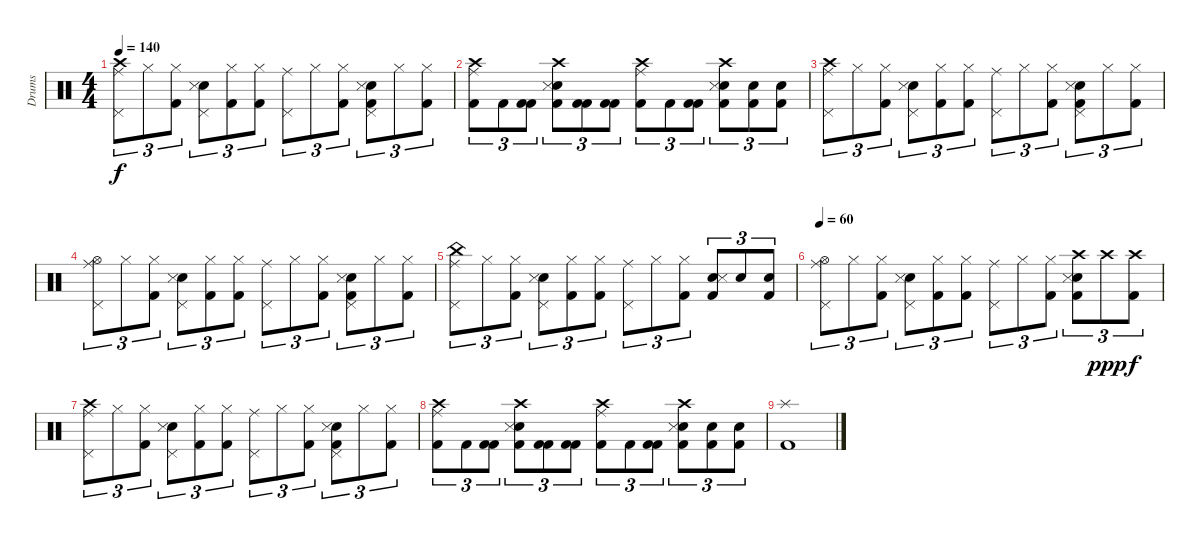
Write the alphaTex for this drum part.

\track ("Drums" "Drums") {instrument percussion}
\staff {score}
\articulation defaults
\ts (4 4)
\tempo 140
\clef neutral
\ks c
("Pedal Hi-Hat (hit)" "Ride (middle)" "Crash high (hit)").8{tu (3 2) dy f} "Hi-Hat (closed)".8{tu (3 2)} ("Hi-Hat (closed)" "Kick (hit) 2").8{tu (3 2)} ("Pedal Hi-Hat (hit)" "Electric Snare (hit)" "Snare (side stick) 3").8{tu (3 2)} ("Hi-Hat (closed)" "Kick (hit) 2").8{tu (3 2)} ("Hi-Hat (closed)" "Kick (hit) 2").8{tu (3 2)} ("Pedal Hi-Hat (hit)" "Ride (middle)").8{tu (3 2)} "Hi-Hat (closed)".8{tu (3 2)} ("Hi-Hat (closed)" "Kick (hit) 2").8{tu (3 2)} ("Pedal Hi-Hat (hit)" "Electric Snare (hit)" "Snare (side stick) 3" "Kick (hit) 2").8{tu (3 2)} "Hi-Hat (closed)".8{tu (3 2)} ("Hi-Hat (closed)" "Kick (hit) 2").8{tu (3 2)} |
("Kick (hit) 2" "Ride (middle)" "Crash high (hit)").8{tu (3 2)} "Kick (hit) 2".8{tu (3 2)} ("Kick (hit) 2" "Kick (hit) 2").8{tu (3 2)} ("Kick (hit) 2" "Electric Snare (hit)" "Snare (side stick) 3" "Crash high (hit)").8{tu (3 2)} ("Kick (hit) 2" "Kick (hit) 2").8{tu (3 2)} ("Kick (hit) 2" "Kick (hit) 2").8{tu (3 2)} ("Kick (hit) 2" "Ride (middle)" "Crash high (hit)").8{tu (3 2)} "Kick (hit) 2".8{tu (3 2)} ("Kick (hit) 2" "Kick (hit) 2").8{tu (3 2)} ("Kick (hit) 2" "Electric Snare (hit)" "Snare (side stick) 3" "Crash high (hit)").8{tu (3 2)} ("Kick (hit) 2" "Electric Snare (hit)").8{tu (3 2)} ("Kick (hit) 2" "Electric Snare (hit)").8{tu (3 2)} |
("Pedal Hi-Hat (hit)" "Ride (middle)" "Crash high (hit)").8{tu (3 2)} "Hi-Hat (closed)".8{tu (3 2)} ("Hi-Hat (closed)" "Kick (hit) 2").8{tu (3 2)} ("Pedal Hi-Hat (hit)" "Electric Snare (hit)" "Snare (side stick) 3").8{tu (3 2)} ("Hi-Hat (closed)" "Kick (hit) 2").8{tu (3 2)} ("Hi-Hat (closed)" "Kick (hit) 2").8{tu (3 2)} ("Pedal Hi-Hat (hit)" "Ride (middle)").8{tu (3 2)} "Hi-Hat (closed)".8{tu (3 2)} ("Hi-Hat (closed)" "Kick (hit) 2").8{tu (3 2)} ("Pedal Hi-Hat (hit)" "Electric Snare (hit)" "Snare (side stick) 3" "Kick (hit) 2").8{tu (3 2)} "Hi-Hat (closed)".8{tu (3 2)} ("Hi-Hat (closed)" "Kick (hit) 2").8{tu (3 2)} |
("Pedal Hi-Hat (hit)" "Ride (middle)" "Hi-Hat (open)").8{tu (3 2)} "Hi-Hat (closed)".8{tu (3 2)} ("Hi-Hat (closed)" "Kick (hit) 2").8{tu (3 2)} ("Pedal Hi-Hat (hit)" "Electric Snare (hit)" "Snare (side stick) 3").8{tu (3 2)} ("Hi-Hat (closed)" "Kick (hit) 2").8{tu (3 2)} ("Hi-Hat (closed)" "Kick (hit) 2").8{tu (3 2)} ("Pedal Hi-Hat (hit)" "Ride (middle)").8{tu (3 2)} "Hi-Hat (closed)".8{tu (3 2)} ("Hi-Hat (closed)" "Kick (hit) 2").8{tu (3 2)} ("Pedal Hi-Hat (hit)" "Electric Snare (hit)" "Snare (side stick) 3" "Kick (hit) 2").8{tu (3 2)} "Hi-Hat (closed)".8{tu (3 2)} ("Hi-Hat (closed)" "Kick (hit) 2").8{tu (3 2)} |
("Pedal Hi-Hat (hit)" "Ride (middle)" "China (hit)").8{tu (3 2)} "Hi-Hat (closed)".8{tu (3 2)} ("Hi-Hat (closed)" "Kick (hit) 2").8{tu (3 2)} ("Pedal Hi-Hat (hit)" "Electric Snare (hit)" "Snare (side stick) 3").8{tu (3 2)} ("Hi-Hat (closed)" "Kick (hit) 2").8{tu (3 2)} ("Hi-Hat (closed)" "Kick (hit) 2").8{tu (3 2)} ("Pedal Hi-Hat (hit)" "Ride (middle)").8{tu (3 2)} "Hi-Hat (closed)".8{tu (3 2)} ("Hi-Hat (closed)" "Kick (hit) 2").8{tu (3 2)} ("Electric Snare (hit)" "Snare (side stick) 3" "Kick (hit) 2").8{tu (3 2)} "Electric Snare (hit)".8{tu (3 2)} ("Electric Snare (hit)" "Kick (hit) 2").8{tu (3 2)} |
\tempo 60
("Pedal Hi-Hat (hit)" "Ride (middle)" "Hi-Hat (open)").8{tu (3 2)} "Hi-Hat (closed)".8{tu (3 2)} ("Hi-Hat (closed)" "Kick (hit) 2").8{tu (3 2)} ("Pedal Hi-Hat (hit)" "Electric Snare (hit)" "Snare (side stick) 3").8{tu (3 2)} ("Hi-Hat (closed)" "Kick (hit) 2").8{tu (3 2)} ("Hi-Hat (closed)" "Kick (hit) 2").8{tu (3 2)} ("Pedal Hi-Hat (hit)" "Ride (middle)").8{tu (3 2)} "Hi-Hat (closed)".8{tu (3 2)} ("Hi-Hat (closed)" "Kick (hit) 2").8{tu (3 2)} ("Crash high (hit)" "Electric Snare (hit)" "Snare (side stick) 3" "Kick (hit) 2").8{tu (3 2)} "Crash high (hit)".8{tu (3 2) dy ppp} ("Crash high (hit)" "Kick (hit) 2").8{tu (3 2) dy f} |
("Pedal Hi-Hat (hit)" "Ride (middle)" "Crash high (hit)").8{tu (3 2)} "Hi-Hat (closed)".8{tu (3 2)} ("Hi-Hat (closed)" "Kick (hit) 2").8{tu (3 2)} ("Pedal Hi-Hat (hit)" "Electric Snare (hit)" "Snare (side stick) 3").8{tu (3 2)} ("Hi-Hat (closed)" "Kick (hit) 2").8{tu (3 2)} ("Hi-Hat (closed)" "Kick (hit) 2").8{tu (3 2)} ("Pedal Hi-Hat (hit)" "Ride (middle)").8{tu (3 2)} "Hi-Hat (closed)".8{tu (3 2)} ("Hi-Hat (closed)" "Kick (hit) 2").8{tu (3 2)} ("Pedal Hi-Hat (hit)" "Electric Snare (hit)" "Snare (side stick) 3" "Kick (hit) 2").8{tu (3 2)} "Hi-Hat (closed)".8{tu (3 2)} ("Hi-Hat (closed)" "Kick (hit) 2").8{tu (3 2)} |
("Kick (hit) 2" "Ride (middle)" "Crash high (hit)").8{tu (3 2)} "Kick (hit) 2".8{tu (3 2)} ("Kick (hit) 2" "Kick (hit) 2").8{tu (3 2)} ("Kick (hit) 2" "Electric Snare (hit)" "Snare (side stick) 3" "Crash high (hit)").8{tu (3 2)} ("Kick (hit) 2" "Kick (hit) 2").8{tu (3 2)} ("Kick (hit) 2" "Kick (hit) 2").8{tu (3 2)} ("Kick (hit) 2" "Ride (middle)" "Crash high (hit)").8{tu (3 2)} "Kick (hit) 2".8{tu (3 2)} ("Kick (hit) 2" "Kick (hit) 2").8{tu (3 2)} ("Kick (hit) 2" "Electric Snare (hit)" "Snare (side stick) 3" "Crash high (hit)").8{tu (3 2)} ("Kick (hit) 2" "Electric Snare (hit)").8{tu (3 2)} ("Kick (hit) 2" "Electric Snare (hit)").8{tu (3 2)} |
("Splash (hit)" "Kick (hit) 2").1
